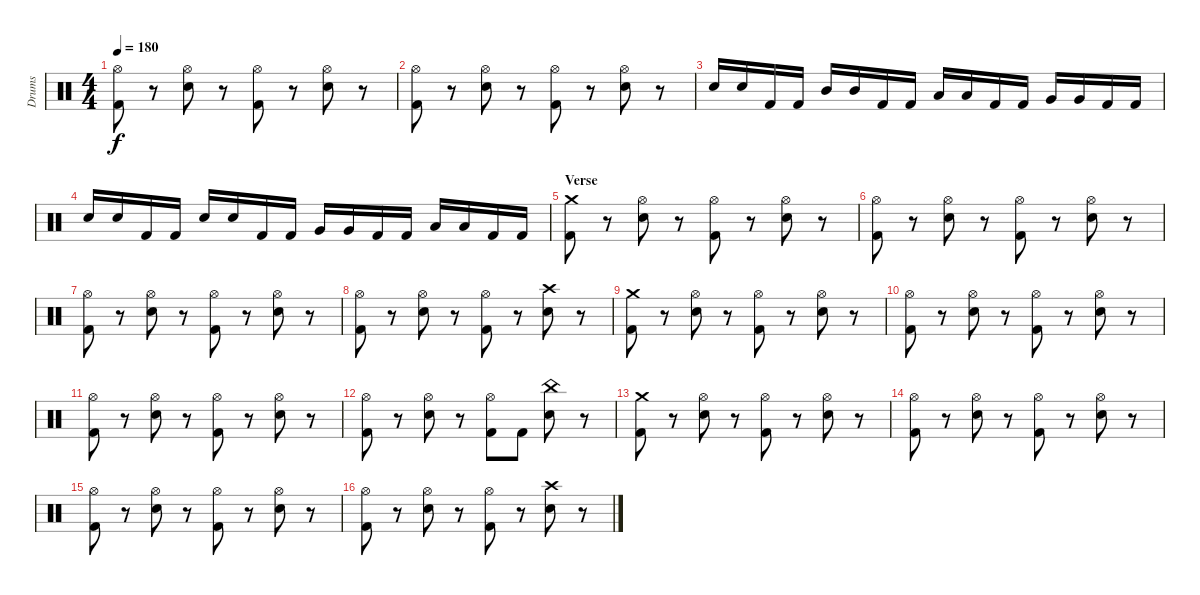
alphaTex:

\track ("Drums" "Drums") {instrument percussion}
\staff {score}
\articulation defaults
\ts (4 4)
\tempo 180
\clef neutral
\ks c
("Hi-Hat (open)" "Kick (hit) 2").8{dy f} r.8 ("Hi-Hat (open)" "Snare (hit) 2").8 r.8 ("Hi-Hat (open)" "Kick (hit) 2").8 r.8 ("Hi-Hat (open)" "Snare (hit) 2").8 r.8 |
("Hi-Hat (open)" "Kick (hit) 2").8 r.8 ("Hi-Hat (open)" "Snare (hit) 2").8 r.8 ("Hi-Hat (open)" "Kick (hit) 2").8 r.8 ("Hi-Hat (open)" "Snare (hit) 2").8 r.8 |
"Snare (hit) 2".16 "Snare (hit) 2".16 "Kick (hit) 2".16 "Kick (hit) 2".16 "Mid Tom (hit)".16 "Mid Tom (hit)".16 "Kick (hit) 2".16 "Kick (hit) 2".16 "Low Tom (hit)".16 "Low Tom (hit)".16 "Kick (hit) 2".16 "Kick (hit) 2".16 "Very Low Tom (hit)".16 "Very Low Tom (hit)".16 "Kick (hit) 2".16 "Kick (hit) 2".16 |
"Snare (hit) 2".16 "Snare (hit) 2".16 "Kick (hit) 2".16 "Kick (hit) 2".16 "Snare (hit) 2".16 "Snare (hit) 2".16 "Kick (hit) 2".16 "Kick (hit) 2".16 "Very Low Tom (hit)".16 "Very Low Tom (hit)".16 "Kick (hit) 2".16 "Kick (hit) 2".16 "Low Floor Tom (hit)".16 "Low Floor Tom (hit)".16 "Kick (hit) 2".16 "Kick (hit) 2".16 |
\section ("" "Verse")
("Crash medium (hit)" "Kick (hit) 2").8 r.8 ("Hi-Hat (open)" "Snare (hit) 2").8 r.8 ("Hi-Hat (open)" "Kick (hit) 2").8 r.8 ("Hi-Hat (open)" "Snare (hit) 2").8 r.8 |
("Hi-Hat (open)" "Kick (hit) 2").8 r.8 ("Hi-Hat (open)" "Snare (hit) 2").8 r.8 ("Hi-Hat (open)" "Kick (hit) 2").8 r.8 ("Hi-Hat (open)" "Snare (hit) 2").8 r.8 |
("Hi-Hat (open)" "Kick (hit) 2").8 r.8 ("Hi-Hat (open)" "Snare (hit) 2").8 r.8 ("Hi-Hat (open)" "Kick (hit) 2").8 r.8 ("Hi-Hat (open)" "Snare (hit) 2").8 r.8 |
("Hi-Hat (open)" "Kick (hit) 2").8 r.8 ("Hi-Hat (open)" "Snare (hit) 2").8 r.8 ("Hi-Hat (open)" "Kick (hit) 2").8 r.8 ("Crash high (hit)" "Snare (hit) 2").8 r.8 |
("Crash medium (hit)" "Kick (hit) 2").8 r.8 ("Hi-Hat (open)" "Snare (hit) 2").8 r.8 ("Hi-Hat (open)" "Kick (hit) 2").8 r.8 ("Hi-Hat (open)" "Snare (hit) 2").8 r.8 |
("Hi-Hat (open)" "Kick (hit) 2").8 r.8 ("Hi-Hat (open)" "Snare (hit) 2").8 r.8 ("Hi-Hat (open)" "Kick (hit) 2").8 r.8 ("Hi-Hat (open)" "Snare (hit) 2").8 r.8 |
("Hi-Hat (open)" "Kick (hit) 2").8 r.8 ("Hi-Hat (open)" "Snare (hit) 2").8 r.8 ("Hi-Hat (open)" "Kick (hit) 2").8 r.8 ("Hi-Hat (open)" "Snare (hit) 2").8 r.8 |
("Hi-Hat (open)" "Kick (hit) 2").8 r.8 ("Hi-Hat (open)" "Snare (hit) 2").8 r.8 ("Hi-Hat (open)" "Kick (hit) 2").8 "Kick (hit) 2".8 ("China (hit)" "Snare (hit) 2").8 r.8 |
("Crash medium (hit)" "Kick (hit) 2").8 r.8 ("Hi-Hat (open)" "Snare (hit) 2").8 r.8 ("Hi-Hat (open)" "Kick (hit) 2").8 r.8 ("Hi-Hat (open)" "Snare (hit) 2").8 r.8 |
("Hi-Hat (open)" "Kick (hit) 2").8 r.8 ("Hi-Hat (open)" "Snare (hit) 2").8 r.8 ("Hi-Hat (open)" "Kick (hit) 2").8 r.8 ("Hi-Hat (open)" "Snare (hit) 2").8 r.8 |
("Hi-Hat (open)" "Kick (hit) 2").8 r.8 ("Hi-Hat (open)" "Snare (hit) 2").8 r.8 ("Hi-Hat (open)" "Kick (hit) 2").8 r.8 ("Hi-Hat (open)" "Snare (hit) 2").8 r.8 |
("Hi-Hat (open)" "Kick (hit) 2").8 r.8 ("Hi-Hat (open)" "Snare (hit) 2").8 r.8 ("Hi-Hat (open)" "Kick (hit) 2").8 r.8 ("Crash high (hit)" "Snare (hit) 2").8 r.8
